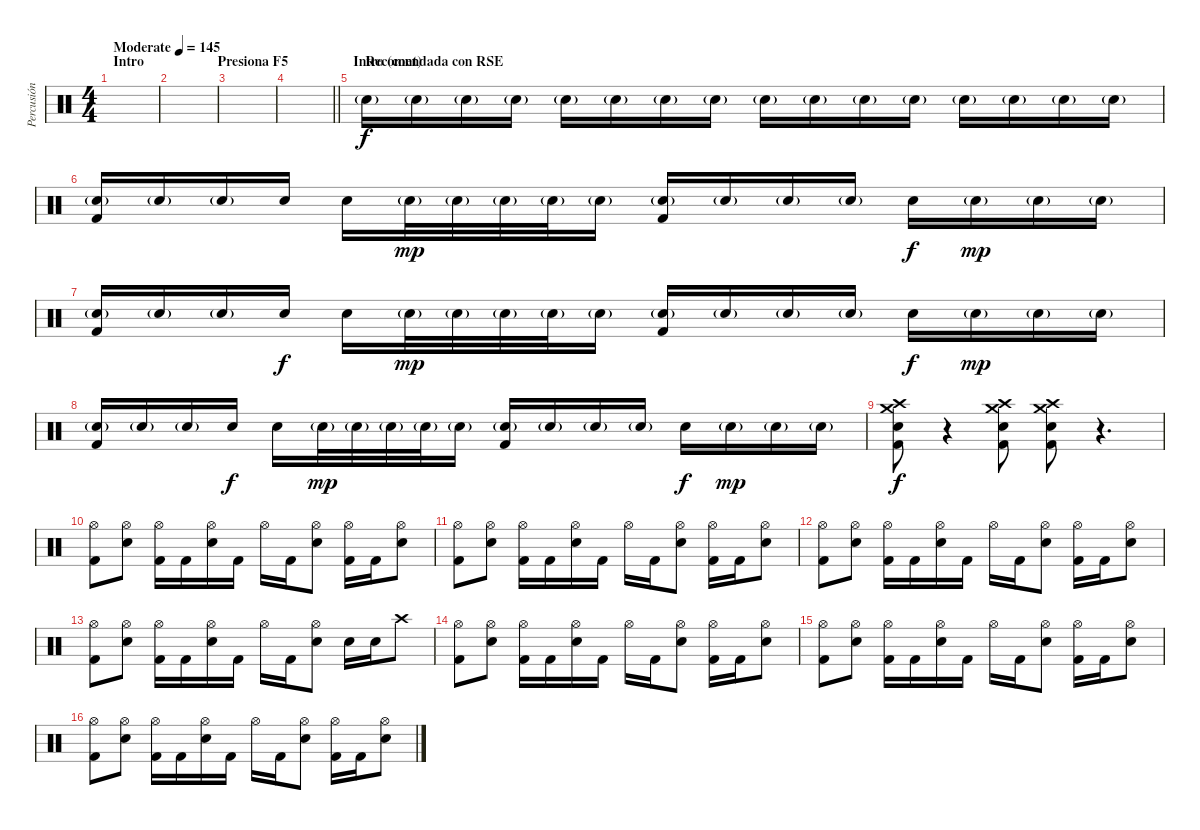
\track ("Percusión" "Percusión") {instrument percussion}
\staff {score}
\articulation defaults
\ts (4 4)
\section ("" "Intro                     Presiona F5                      Recomendada con RSE")
\tempo (145 "Moderate")
\clef neutral
\ks c
|
|
|
\barLineRight lightlight
|
\section ("" "Intro (cont)")
"Snare (hit) 2"{g}.16{volume 13} "Snare (hit) 2"{g}.16 "Snare (hit) 2"{g}.16 "Snare (hit) 2"{g}.16 "Snare (hit) 2"{g}.16 "Snare (hit) 2"{g}.16 "Snare (hit) 2"{g}.16 "Snare (hit) 2"{g}.16 "Snare (hit) 2"{g}.16 "Snare (hit) 2"{g}.16 "Snare (hit) 2"{g}.16 "Snare (hit) 2"{g}.16 "Snare (hit) 2"{g}.16 "Snare (hit) 2"{g}.16 "Snare (hit) 2"{g}.16 "Snare (hit) 2"{g}.16 |
("Snare (hit) 2"{g} "Kick (hit) 2").16 "Snare (hit) 2"{g}.16 "Snare (hit) 2"{g}.16 "Electric Snare (hit)".16{dy f} "Electric Snare (hit)".16 "Snare (hit) 2"{g}.32{dy mp} "Snare (hit) 2"{g}.32 "Snare (hit) 2"{g}.32 "Snare (hit) 2"{g}.32 "Snare (hit) 2"{g}.16 ("Snare (hit) 2"{g} "Kick (hit) 2").16 "Snare (hit) 2"{g}.16 "Snare (hit) 2"{g}.16 "Snare (hit) 2"{g}.16 "Electric Snare (hit)".16{dy f} "Snare (hit) 2"{g}.16{dy mp} "Snare (hit) 2"{g}.16 "Snare (hit) 2"{g}.16 |
("Snare (hit) 2"{g} "Kick (hit) 2").16 "Snare (hit) 2"{g}.16 "Snare (hit) 2"{g}.16 "Electric Snare (hit)".16{dy f} "Electric Snare (hit)".16 "Snare (hit) 2"{g}.32{dy mp} "Snare (hit) 2"{g}.32 "Snare (hit) 2"{g}.32 "Snare (hit) 2"{g}.32 "Snare (hit) 2"{g}.16 ("Snare (hit) 2"{g} "Kick (hit) 2").16 "Snare (hit) 2"{g}.16 "Snare (hit) 2"{g}.16 "Snare (hit) 2"{g}.16 "Electric Snare (hit)".16{dy f} "Snare (hit) 2"{g}.16{dy mp} "Snare (hit) 2"{g}.16 "Snare (hit) 2"{g}.16 |
("Snare (hit) 2"{g} "Kick (hit) 2").16 "Snare (hit) 2"{g}.16 "Snare (hit) 2"{g}.16 "Electric Snare (hit)".16{dy f} "Electric Snare (hit)".16 "Snare (hit) 2"{g}.32{dy mp} "Snare (hit) 2"{g}.32 "Snare (hit) 2"{g}.32 "Snare (hit) 2"{g}.32 "Snare (hit) 2"{g}.16 ("Snare (hit) 2"{g} "Kick (hit) 2").16 "Snare (hit) 2"{g}.16 "Snare (hit) 2"{g}.16 "Snare (hit) 2"{g}.16 "Electric Snare (hit)".16{dy f} "Snare (hit) 2"{g}.16{dy mp} "Snare (hit) 2"{g}.16 "Snare (hit) 2"{g}.16 |
("Crash medium (hit)" "Crash high (hit)" "Electric Snare (hit)" "Kick (hit) 2").8{dy f} r.4 ("Crash medium (hit)" "Crash high (hit)" "Electric Snare (hit)" "Kick (hit) 2").8 ("Crash medium (hit)" "Crash high (hit)" "Electric Snare (hit)" "Kick (hit) 2").8 r.4{d} |
("Hi-Hat (open)" "Kick (hit) 2").8 ("Hi-Hat (open)" "Electric Snare (hit)").8 ("Hi-Hat (open)" "Kick (hit) 2").16 "Kick (hit) 2".16 ("Hi-Hat (open)" "Electric Snare (hit)").16 "Kick (hit) 2".16 "Hi-Hat (open)".16 "Kick (hit) 2".16 ("Hi-Hat (open)" "Electric Snare (hit)").8 ("Hi-Hat (open)" "Kick (hit) 2").16 "Kick (hit) 2".16 ("Hi-Hat (open)" "Electric Snare (hit)").8 |
("Hi-Hat (open)" "Kick (hit) 2").8 ("Hi-Hat (open)" "Electric Snare (hit)").8 ("Hi-Hat (open)" "Kick (hit) 2").16 "Kick (hit) 2".16 ("Hi-Hat (open)" "Electric Snare (hit)").16 "Kick (hit) 2".16 "Hi-Hat (open)".16 "Kick (hit) 2".16 ("Hi-Hat (open)" "Electric Snare (hit)").8 ("Hi-Hat (open)" "Kick (hit) 2").16 "Kick (hit) 2".16 ("Hi-Hat (open)" "Electric Snare (hit)").8 |
("Hi-Hat (open)" "Kick (hit) 2").8 ("Hi-Hat (open)" "Electric Snare (hit)").8 ("Hi-Hat (open)" "Kick (hit) 2").16 "Kick (hit) 2".16 ("Hi-Hat (open)" "Electric Snare (hit)").16 "Kick (hit) 2".16 "Hi-Hat (open)".16 "Kick (hit) 2".16 ("Hi-Hat (open)" "Electric Snare (hit)").8 ("Hi-Hat (open)" "Kick (hit) 2").16 "Kick (hit) 2".16 ("Hi-Hat (open)" "Electric Snare (hit)").8 |
("Hi-Hat (open)" "Kick (hit) 2").8 ("Hi-Hat (open)" "Electric Snare (hit)").8 ("Hi-Hat (open)" "Kick (hit) 2").16 "Kick (hit) 2".16 ("Hi-Hat (open)" "Electric Snare (hit)").16 "Kick (hit) 2".16 "Hi-Hat (open)".16 "Kick (hit) 2".16 ("Hi-Hat (open)" "Electric Snare (hit)").8 "Electric Snare (hit)".16 "Electric Snare (hit)".16 "Crash high (hit)".8 |
("Hi-Hat (open)" "Kick (hit) 2").8 ("Hi-Hat (open)" "Electric Snare (hit)").8 ("Hi-Hat (open)" "Kick (hit) 2").16 "Kick (hit) 2".16 ("Hi-Hat (open)" "Electric Snare (hit)").16 "Kick (hit) 2".16 "Hi-Hat (open)".16 "Kick (hit) 2".16 ("Hi-Hat (open)" "Electric Snare (hit)").8 ("Hi-Hat (open)" "Kick (hit) 2").16 "Kick (hit) 2".16 ("Hi-Hat (open)" "Electric Snare (hit)").8 |
("Hi-Hat (open)" "Kick (hit) 2").8 ("Hi-Hat (open)" "Electric Snare (hit)").8 ("Hi-Hat (open)" "Kick (hit) 2").16 "Kick (hit) 2".16 ("Hi-Hat (open)" "Electric Snare (hit)").16 "Kick (hit) 2".16 "Hi-Hat (open)".16 "Kick (hit) 2".16 ("Hi-Hat (open)" "Electric Snare (hit)").8 ("Hi-Hat (open)" "Kick (hit) 2").16 "Kick (hit) 2".16 ("Hi-Hat (open)" "Electric Snare (hit)").8 |
("Hi-Hat (open)" "Kick (hit) 2").8 ("Hi-Hat (open)" "Electric Snare (hit)").8 ("Hi-Hat (open)" "Kick (hit) 2").16 "Kick (hit) 2".16 ("Hi-Hat (open)" "Electric Snare (hit)").16 "Kick (hit) 2".16 "Hi-Hat (open)".16 "Kick (hit) 2".16 ("Hi-Hat (open)" "Electric Snare (hit)").8 ("Hi-Hat (open)" "Kick (hit) 2").16 "Kick (hit) 2".16 ("Hi-Hat (open)" "Electric Snare (hit)").8
